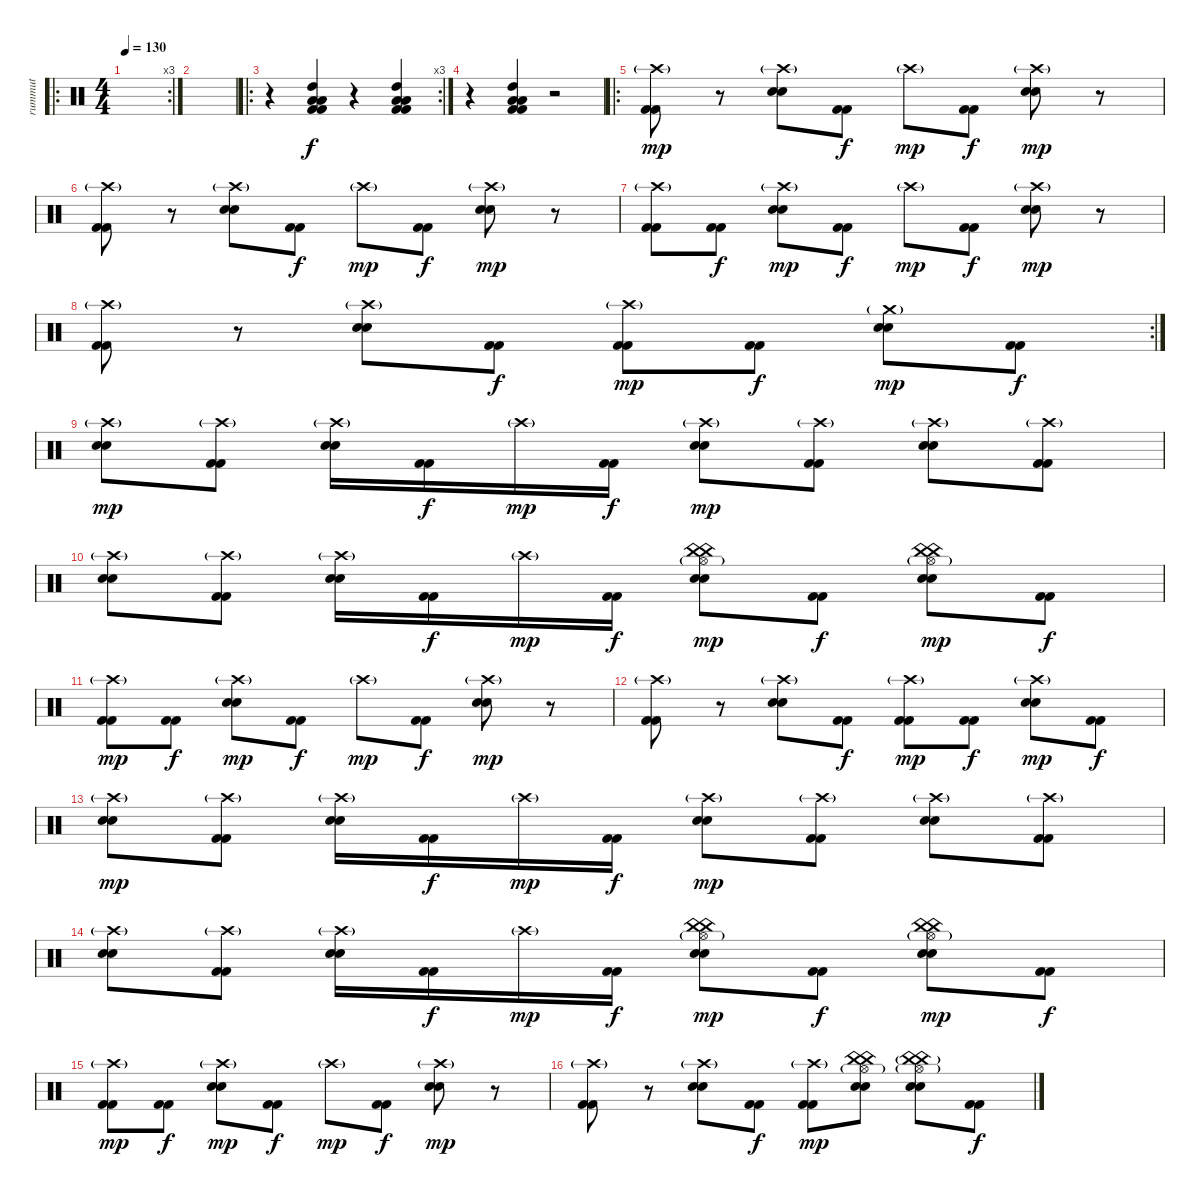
\track ("rummut" "rummut") {instrument percussion}
\staff {score}
\articulation defaults
\ro
\rc 3
\ts (4 4)
\tempo 130
\clef neutral
\ks c
|
|
\ro
\rc 3
r.4 ("High Tom (hit)" "Low Tom (hit)" "Low Tom (hit)" "Kick (hit) 2" "Kick (hit) 2").4 r.4 ("High Tom (hit)" "Low Tom (hit)" "Low Tom (hit)" "Kick (hit) 2" "Kick (hit) 2").4 |
r.4 ("High Tom (hit)" "Low Tom (hit)" "Low Tom (hit)" "Kick (hit) 2" "Kick (hit) 2").4 r.2 |
\ro
("Crash high (hit)"{g} "Kick (hit) 2" "Kick (hit) 2").8{dy mp} r.8 ("Crash high (hit)"{g} "Electric Snare (hit)" "Electric Snare (hit)").8 ("Kick (hit) 2" "Kick (hit) 2").8{dy f} "Crash high (hit)"{g}.8{dy mp} ("Kick (hit) 2" "Kick (hit) 2").8{dy f} ("Crash high (hit)"{g} "Electric Snare (hit)" "Electric Snare (hit)").8{dy mp} r.8 |
("Crash high (hit)"{g} "Kick (hit) 2" "Kick (hit) 2").8 r.8 ("Crash high (hit)"{g} "Electric Snare (hit)" "Electric Snare (hit)").8 ("Kick (hit) 2" "Kick (hit) 2").8{dy f} "Crash high (hit)"{g}.8{dy mp} ("Kick (hit) 2" "Kick (hit) 2").8{dy f} ("Crash high (hit)"{g} "Electric Snare (hit)" "Electric Snare (hit)").8{dy mp} r.8 |
("Crash high (hit)"{g} "Kick (hit) 2" "Kick (hit) 2").8 ("Kick (hit) 2" "Kick (hit) 2").8{dy f} ("Crash high (hit)"{g} "Electric Snare (hit)" "Electric Snare (hit)").8{dy mp} ("Kick (hit) 2" "Kick (hit) 2").8{dy f} "Crash high (hit)"{g}.8{dy mp} ("Kick (hit) 2" "Kick (hit) 2").8{dy f} ("Crash high (hit)"{g} "Electric Snare (hit)" "Electric Snare (hit)").8{dy mp} r.8 |
\rc 2
("Crash high (hit)"{g} "Kick (hit) 2" "Kick (hit) 2").8 r.8 ("Crash high (hit)"{g} "Electric Snare (hit)" "Electric Snare (hit)").8 ("Kick (hit) 2" "Kick (hit) 2").8{dy f} ("Crash high (hit)"{g} "Kick (hit) 2" "Kick (hit) 2").8{dy mp} ("Kick (hit) 2" "Kick (hit) 2").8{dy f} ("Crash medium (hit)"{g} "Electric Snare (hit)" "Electric Snare (hit)").8{dy mp} ("Kick (hit) 2" "Kick (hit) 2").8{dy f} |
("Crash high (hit)"{g} "Electric Snare (hit)" "Electric Snare (hit)").8{dy mp} ("Crash high (hit)"{g} "Kick (hit) 2" "Kick (hit) 2").8 ("Crash high (hit)"{g} "Electric Snare (hit)" "Electric Snare (hit)").16 ("Kick (hit) 2" "Kick (hit) 2").16{dy f} "Crash high (hit)"{g}.16{dy mp} ("Kick (hit) 2" "Kick (hit) 2").16{dy f} ("Crash high (hit)"{g} "Electric Snare (hit)" "Electric Snare (hit)").8{dy mp} ("Crash high (hit)"{g} "Kick (hit) 2" "Kick (hit) 2").8 ("Crash high (hit)"{g} "Electric Snare (hit)" "Electric Snare (hit)").8 ("Crash high (hit)"{g} "Kick (hit) 2" "Kick (hit) 2").8 |
("Crash high (hit)"{g} "Electric Snare (hit)" "Electric Snare (hit)").8 ("Crash high (hit)"{g} "Kick (hit) 2" "Kick (hit) 2").8 ("Crash high (hit)"{g} "Electric Snare (hit)" "Electric Snare (hit)").16 ("Kick (hit) 2" "Kick (hit) 2").16{dy f} "Crash high (hit)"{g}.16{dy mp} ("Kick (hit) 2" "Kick (hit) 2").16{dy f} ("China (hit)" "China (hit)" "Hi-Hat (open)"{g} "Electric Snare (hit)" "Electric Snare (hit)").8{dy mp} ("Kick (hit) 2" "Kick (hit) 2").8{dy f} ("China (hit)" "China (hit)" "Hi-Hat (open)"{g} "Electric Snare (hit)" "Electric Snare (hit)").8{dy mp} ("Kick (hit) 2" "Kick (hit) 2").8{dy f} |
("Crash high (hit)"{g} "Kick (hit) 2" "Kick (hit) 2").8{dy mp} ("Kick (hit) 2" "Kick (hit) 2").8{dy f} ("Crash high (hit)"{g} "Electric Snare (hit)" "Electric Snare (hit)").8{dy mp} ("Kick (hit) 2" "Kick (hit) 2").8{dy f} "Crash high (hit)"{g}.8{dy mp} ("Kick (hit) 2" "Kick (hit) 2").8{dy f} ("Crash high (hit)"{g} "Electric Snare (hit)" "Electric Snare (hit)").8{dy mp} r.8 |
("Crash high (hit)"{g} "Kick (hit) 2" "Kick (hit) 2").8 r.8 ("Crash high (hit)"{g} "Electric Snare (hit)" "Electric Snare (hit)").8 ("Kick (hit) 2" "Kick (hit) 2").8{dy f} ("Crash high (hit)"{g} "Kick (hit) 2" "Kick (hit) 2").8{dy mp} ("Kick (hit) 2" "Kick (hit) 2").8{dy f} ("Crash high (hit)"{g} "Electric Snare (hit)" "Electric Snare (hit)").8{dy mp} ("Kick (hit) 2" "Kick (hit) 2").8{dy f} |
("Crash high (hit)"{g} "Electric Snare (hit)" "Electric Snare (hit)").8{dy mp} ("Crash high (hit)"{g} "Kick (hit) 2" "Kick (hit) 2").8 ("Crash high (hit)"{g} "Electric Snare (hit)" "Electric Snare (hit)").16 ("Kick (hit) 2" "Kick (hit) 2").16{dy f} "Crash high (hit)"{g}.16{dy mp} ("Kick (hit) 2" "Kick (hit) 2").16{dy f} ("Crash high (hit)"{g} "Electric Snare (hit)" "Electric Snare (hit)").8{dy mp} ("Crash high (hit)"{g} "Kick (hit) 2" "Kick (hit) 2").8 ("Crash high (hit)"{g} "Electric Snare (hit)" "Electric Snare (hit)").8 ("Crash high (hit)"{g} "Kick (hit) 2" "Kick (hit) 2").8 |
("Crash high (hit)"{g} "Electric Snare (hit)" "Electric Snare (hit)").8 ("Crash high (hit)"{g} "Kick (hit) 2" "Kick (hit) 2").8 ("Crash high (hit)"{g} "Electric Snare (hit)" "Electric Snare (hit)").16 ("Kick (hit) 2" "Kick (hit) 2").16{dy f} "Crash high (hit)"{g}.16{dy mp} ("Kick (hit) 2" "Kick (hit) 2").16{dy f} ("China (hit)" "China (hit)" "Hi-Hat (open)"{g} "Electric Snare (hit)" "Electric Snare (hit)").8{dy mp} ("Kick (hit) 2" "Kick (hit) 2").8{dy f} ("China (hit)" "China (hit)" "Hi-Hat (open)"{g} "Electric Snare (hit)" "Electric Snare (hit)").8{dy mp} ("Kick (hit) 2" "Kick (hit) 2").8{dy f} |
("Crash high (hit)"{g} "Kick (hit) 2" "Kick (hit) 2").8{dy mp} ("Kick (hit) 2" "Kick (hit) 2").8{dy f} ("Crash high (hit)"{g} "Electric Snare (hit)" "Electric Snare (hit)").8{dy mp} ("Kick (hit) 2" "Kick (hit) 2").8{dy f} "Crash high (hit)"{g}.8{dy mp} ("Kick (hit) 2" "Kick (hit) 2").8{dy f} ("Crash high (hit)"{g} "Electric Snare (hit)" "Electric Snare (hit)").8{dy mp} r.8 |
("Crash high (hit)"{g} "Kick (hit) 2" "Kick (hit) 2").8 r.8 ("Crash high (hit)"{g} "Electric Snare (hit)" "Electric Snare (hit)").8 ("Kick (hit) 2" "Kick (hit) 2").8{dy f} ("Crash high (hit)"{g} "Kick (hit) 2" "Kick (hit) 2").8{dy mp} ("China (hit)" "China (hit)" "Hi-Hat (open)"{g} "Electric Snare (hit)" "Electric Snare (hit)").8 ("China (hit)"{g} "China (hit)" "Hi-Hat (open)"{g} "Electric Snare (hit)" "Electric Snare (hit)").8 ("Kick (hit) 2" "Kick (hit) 2").8{dy f}
